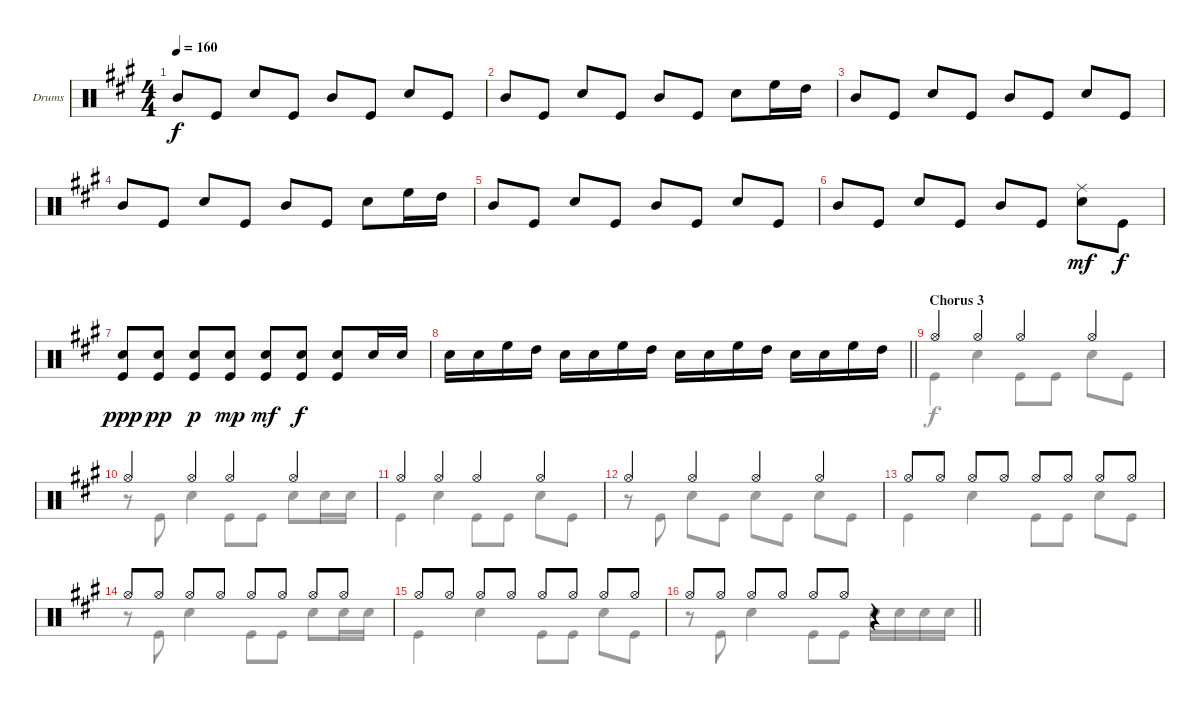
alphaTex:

\bracketExtendMode groupsimilarinstruments
\firstSystemTrackNameOrientation horizontal
\otherSystemsTrackNameOrientation horizontal
\track ("Drumkit" "Drums") {instrument percussion}
\staff {score}
\articulation defaults
\voice
\ts (4 4)
\tempo 160
\clef neutral
\ks a "Mid Tom (hit)".8{dy f} "Kick (hit)".8 "Snare (hit) 2".8 "Kick (hit)".8 "Mid Tom (hit)".8 "Kick (hit)".8 "Snare (hit) 2".8 "Kick (hit)".8
|
"Mid Tom (hit)".8 "Kick (hit)".8 "Snare (hit) 2".8 "Kick (hit)".8 "Mid Tom (hit)".8 "Kick (hit)".8 "Snare (hit) 2".8 "High Floor Tom (hit)".16 "High Tom (hit)".16 |
"Mid Tom (hit)".8 "Kick (hit)".8 "Snare (hit) 2".8 "Kick (hit)".8 "Mid Tom (hit)".8 "Kick (hit)".8 "Snare (hit) 2".8 "Kick (hit)".8 |
"Mid Tom (hit)".8 "Kick (hit)".8 "Snare (hit) 2".8 "Kick (hit)".8 "Mid Tom (hit)".8 "Kick (hit)".8 "Snare (hit) 2".8 "High Floor Tom (hit)".16 "High Tom (hit)".16 |
"Mid Tom (hit)".8 "Kick (hit)".8 "Snare (hit) 2".8 "Kick (hit)".8 "Mid Tom (hit)".8 "Kick (hit)".8 "Snare (hit) 2".8 "Kick (hit)".8 |
"Mid Tom (hit)".8 "Kick (hit)".8 "Snare (hit) 2".8 "Kick (hit)".8 "Mid Tom (hit)".8 "Kick (hit)".8 ("Ride (middle)" "Snare (hit) 2").8{dy mf} "Kick (hit)".8{dy f} |
("Snare (hit) 2" "Kick (hit)").8{dy ppp} ("Snare (hit) 2" "Kick (hit)").8{dy pp} ("Snare (hit) 2" "Kick (hit)").8{dy p} ("Snare (hit) 2" "Kick (hit)").8{dy mp} ("Snare (hit) 2" "Kick (hit)").8{dy mf} ("Snare (hit) 2" "Kick (hit)").8{dy f} ("Snare (hit) 2" "Kick (hit)").8 "Snare (hit) 2".16 "Snare (hit) 2".16 |
\barLineRight lightlight "Snare (hit) 2".16 "Snare (hit) 2".16 "High Floor Tom (hit)".16 "High Tom (hit)".16 "Snare (hit) 2".16 "Snare (hit) 2".16 "High Floor Tom (hit)".16 "High Tom (hit)".16 "Snare (hit) 2".16 "Snare (hit) 2".16 "High Floor Tom (hit)".16 "High Tom (hit)".16 "Snare (hit) 2".16 "Snare (hit) 2".16 "High Floor Tom (hit)".16 "High Tom (hit)".16
|
\section ("" "Chorus 3")
"Hi-Hat (open)".4 "Hi-Hat (open)".4 "Hi-Hat (open)".4 "Hi-Hat (open)".4 |
"Hi-Hat (open)".4 "Hi-Hat (open)".4 "Hi-Hat (open)".4 "Hi-Hat (open)".4 |
"Hi-Hat (open)".4 "Hi-Hat (open)".4 "Hi-Hat (open)".4 "Hi-Hat (open)".4 |
"Hi-Hat (open)".4 "Hi-Hat (open)".4 "Hi-Hat (open)".4 "Hi-Hat (open)".4 |
"Hi-Hat (open)".8 "Hi-Hat (open)".8 "Hi-Hat (open)".8 "Hi-Hat (open)".8 "Hi-Hat (open)".8 "Hi-Hat (open)".8 "Hi-Hat (open)".8 "Hi-Hat (open)".8 |
"Hi-Hat (open)".8 "Hi-Hat (open)".8 "Hi-Hat (open)".8 "Hi-Hat (open)".8 "Hi-Hat (open)".8 "Hi-Hat (open)".8 "Hi-Hat (open)".8 "Hi-Hat (open)".8 |
"Hi-Hat (open)".8 "Hi-Hat (open)".8 "Hi-Hat (open)".8 "Hi-Hat (open)".8 "Hi-Hat (open)".8 "Hi-Hat (open)".8 "Hi-Hat (open)".8 "Hi-Hat (open)".8 |
\barLineRight lightlight "Hi-Hat (open)".8 "Hi-Hat (open)".8 "Hi-Hat (open)".8 "Hi-Hat (open)".8 "Hi-Hat (open)".8 "Hi-Hat (open)".8
r.4
\voice
\clef neutral
\ottava regular
\simile none
\ks a
|
|
|
|
|
|
|
\barLineRight lightlight
|
"Kick (hit)".4 "Snare (hit) 2".4 "Kick (hit)".8 "Kick (hit)".8 "Snare (hit) 2".8 "Kick (hit)".8 |
r.8 "Kick (hit)".8 "Snare (hit) 2".4 "Kick (hit)".8 "Kick (hit)".8 "Snare (hit) 2".8 "Snare (hit) 2".16 "Snare (hit) 2".16 |
"Kick (hit)".4 "Snare (hit) 2".4 "Kick (hit)".8 "Kick (hit)".8 "Snare (hit) 2".8 "Kick (hit)".8 |
r.8 "Kick (hit)".8 "Snare (hit) 2".8 "Kick (hit)".8 "Snare (hit) 2".8 "Kick (hit)".8 "Snare (hit) 2".8 "Kick (hit)".8 |
"Kick (hit)".4 "Snare (hit) 2".4 "Kick (hit)".8 "Kick (hit)".8 "Snare (hit) 2".8 "Kick (hit)".8 |
r.8 "Kick (hit)".8 "Snare (hit) 2".4 "Kick (hit)".8 "Kick (hit)".8 "Snare (hit) 2".8 "Snare (hit) 2".16 "Snare (hit) 2".16 |
"Kick (hit)".4 "Snare (hit) 2".4 "Kick (hit)".8 "Kick (hit)".8 "Snare (hit) 2".8 "Kick (hit)".8 |
\barLineRight lightlight
r.8 "Kick (hit)".8 "Snare (hit) 2".4 "Kick (hit)".8 "Kick (hit)".8 "Snare (hit) 2".16 "Snare (hit) 2".16 "Snare (hit) 2".16 "Snare (hit) 2".16
